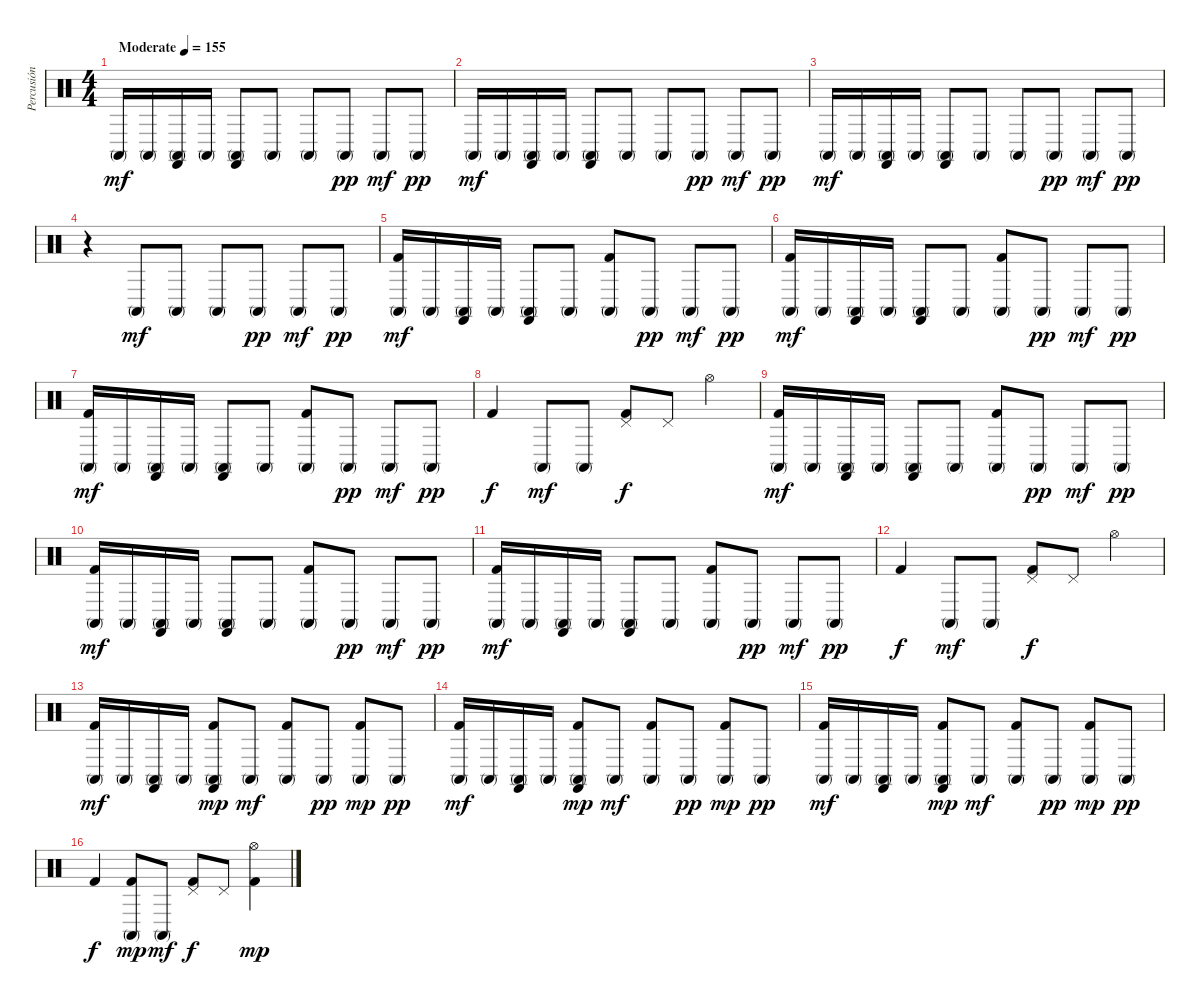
\track ("Percusión" "Percusión") {instrument percussion}
\staff {score}
\articulation defaults
\ts (4 4)
\tempo (155 "Moderate")
\clef neutral
\ks c "Conga high (mute)".16{dy mf} "Conga high (mute)".16
("Castanets (hit)" "Conga high (mute)").16 "Conga high (mute)".16 ("Castanets (hit)" "Conga high (mute)").8 "Conga high (mute)".8 "Conga high (mute)".8 "Conga high (mute)".8{dy pp} "Conga high (mute)".8{dy mf} "Conga high (mute)".8{dy pp} |
"Conga high (mute)".16{dy mf} "Conga high (mute)".16 ("Castanets (hit)" "Conga high (mute)").16 "Conga high (mute)".16 ("Castanets (hit)" "Conga high (mute)").8 "Conga high (mute)".8 "Conga high (mute)".8 "Conga high (mute)".8{dy pp} "Conga high (mute)".8{dy mf} "Conga high (mute)".8{dy pp} |
"Conga high (mute)".16{dy mf} "Conga high (mute)".16 ("Castanets (hit)" "Conga high (mute)").16 "Conga high (mute)".16 ("Castanets (hit)" "Conga high (mute)").8 "Conga high (mute)".8 "Conga high (mute)".8 "Conga high (mute)".8{dy pp} "Conga high (mute)".8{dy mf} "Conga high (mute)".8{dy pp} |
r.4 "Conga high (mute)".8{dy mf} "Conga high (mute)".8 "Conga high (mute)".8 "Conga high (mute)".8{dy pp} "Conga high (mute)".8{dy mf} "Conga high (mute)".8{dy pp} |
("Conga high (mute)" "Kick (hit) 2").16{dy mf} "Conga high (mute)".16 ("Castanets (hit)" "Conga high (mute)").16 "Conga high (mute)".16 ("Castanets (hit)" "Conga high (mute)").8 "Conga high (mute)".8 ("Conga high (mute)" "Kick (hit) 2").8 "Conga high (mute)".8{dy pp} "Conga high (mute)".8{dy mf} "Conga high (mute)".8{dy pp} |
("Conga high (mute)" "Kick (hit) 2").16{dy mf} "Conga high (mute)".16 ("Castanets (hit)" "Conga high (mute)").16 "Conga high (mute)".16 ("Castanets (hit)" "Conga high (mute)").8 "Conga high (mute)".8 ("Conga high (mute)" "Kick (hit) 2").8 "Conga high (mute)".8{dy pp} "Conga high (mute)".8{dy mf} "Conga high (mute)".8{dy pp} |
("Conga high (mute)" "Kick (hit) 2").16{dy mf} "Conga high (mute)".16 ("Castanets (hit)" "Conga high (mute)").16 "Conga high (mute)".16 ("Castanets (hit)" "Conga high (mute)").8 "Conga high (mute)".8 ("Conga high (mute)" "Kick (hit) 2").8 "Conga high (mute)".8{dy pp} "Conga high (mute)".8{dy mf} "Conga high (mute)".8{dy pp} |
"Kick (hit) 2".4{dy f} "Conga high (mute)".8{dy mf} "Conga high (mute)".8 ("Pedal Hi-Hat (hit)" "Kick (hit) 2").8{dy f} "Pedal Hi-Hat (hit)".8 "Hi-Hat (open)".4 |
("Conga high (mute)" "Kick (hit) 2").16{dy mf} "Conga high (mute)".16 ("Castanets (hit)" "Conga high (mute)").16 "Conga high (mute)".16 ("Castanets (hit)" "Conga high (mute)").8 "Conga high (mute)".8 ("Conga high (mute)" "Kick (hit) 2").8 "Conga high (mute)".8{dy pp} "Conga high (mute)".8{dy mf} "Conga high (mute)".8{dy pp} |
("Conga high (mute)" "Kick (hit) 2").16{dy mf} "Conga high (mute)".16 ("Castanets (hit)" "Conga high (mute)").16 "Conga high (mute)".16 ("Castanets (hit)" "Conga high (mute)").8 "Conga high (mute)".8 ("Conga high (mute)" "Kick (hit) 2").8 "Conga high (mute)".8{dy pp} "Conga high (mute)".8{dy mf} "Conga high (mute)".8{dy pp} |
("Conga high (mute)" "Kick (hit) 2").16{dy mf} "Conga high (mute)".16 ("Castanets (hit)" "Conga high (mute)").16 "Conga high (mute)".16 ("Castanets (hit)" "Conga high (mute)").8 "Conga high (mute)".8 ("Conga high (mute)" "Kick (hit) 2").8 "Conga high (mute)".8{dy pp} "Conga high (mute)".8{dy mf} "Conga high (mute)".8{dy pp} |
"Kick (hit) 2".4{dy f} "Conga high (mute)".8{dy mf} "Conga high (mute)".8 ("Pedal Hi-Hat (hit)" "Kick (hit) 2").8{dy f} "Pedal Hi-Hat (hit)".8 "Hi-Hat (open)".4 |
("Conga high (mute)" "Kick (hit) 2").16{dy mf} "Conga high (mute)".16 ("Castanets (hit)" "Conga high (mute)").16 "Conga high (mute)".16 ("Castanets (hit)" "Conga high (mute)" "Kick (hit) 2").8{dy mp} "Conga high (mute)".8{dy mf} ("Conga high (mute)" "Kick (hit) 2").8 "Conga high (mute)".8{dy pp} ("Conga high (mute)" "Kick (hit) 2").8{dy mp} "Conga high (mute)".8{dy pp} |
("Conga high (mute)" "Kick (hit) 2").16{dy mf} "Conga high (mute)".16 ("Castanets (hit)" "Conga high (mute)").16 "Conga high (mute)".16 ("Castanets (hit)" "Conga high (mute)" "Kick (hit) 2").8{dy mp} "Conga high (mute)".8{dy mf} ("Conga high (mute)" "Kick (hit) 2").8 "Conga high (mute)".8{dy pp} ("Conga high (mute)" "Kick (hit) 2").8{dy mp} "Conga high (mute)".8{dy pp} |
("Conga high (mute)" "Kick (hit) 2").16{dy mf} "Conga high (mute)".16 ("Castanets (hit)" "Conga high (mute)").16 "Conga high (mute)".16 ("Castanets (hit)" "Conga high (mute)" "Kick (hit) 2").8{dy mp} "Conga high (mute)".8{dy mf} ("Conga high (mute)" "Kick (hit) 2").8 "Conga high (mute)".8{dy pp} ("Conga high (mute)" "Kick (hit) 2").8{dy mp} "Conga high (mute)".8{dy pp} |
"Kick (hit) 2".4{dy f} ("Conga high (mute)" "Kick (hit) 2").8{dy mp} "Conga high (mute)".8{dy mf} ("Pedal Hi-Hat (hit)" "Kick (hit) 2").8{dy f} "Pedal Hi-Hat (hit)".8 ("Hi-Hat (open)" "Kick (hit) 2").4{dy mp}
